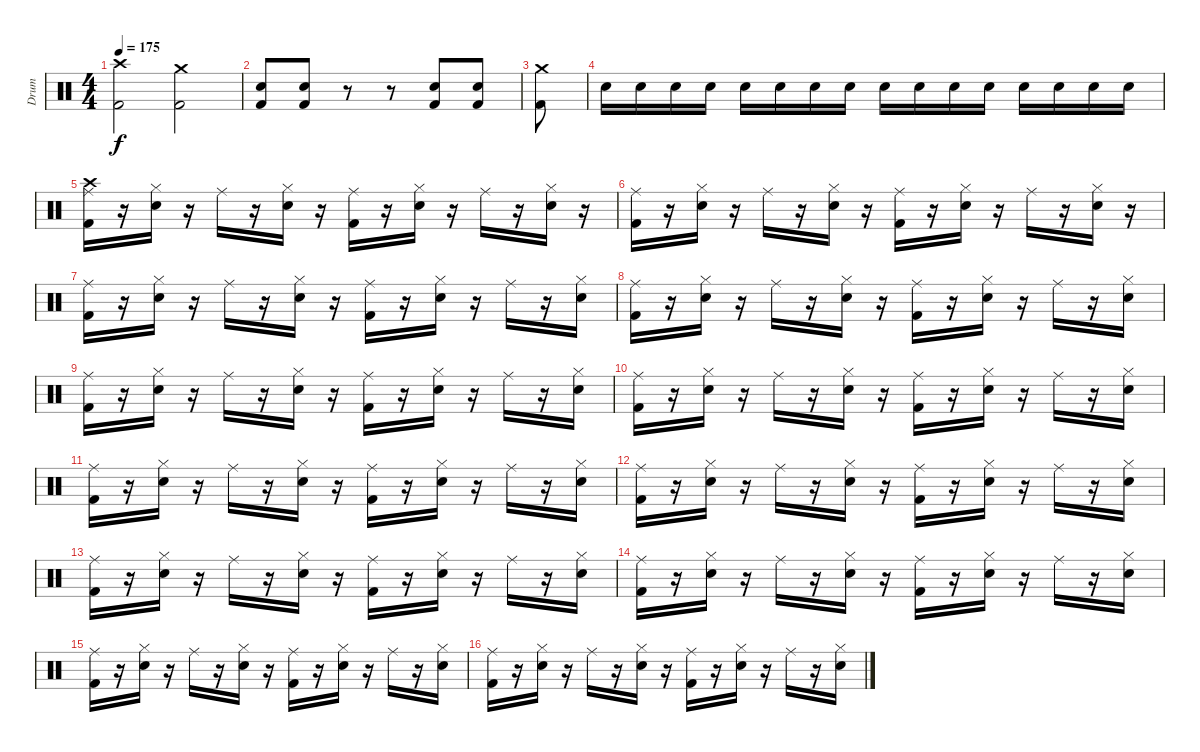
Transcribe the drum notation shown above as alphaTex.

\track ("Drum" "Drum") {instrument percussion}
\staff {score}
\articulation defaults
\ts (4 4)
\tempo 175
\clef neutral
\ks c
("Kick (hit) 2" "Crash high (hit)").2{dy f} ("Kick (hit) 2" "Crash medium (hit)").2 |
("Electric Snare (hit)" "Kick (hit) 2").8 ("Electric Snare (hit)" "Kick (hit) 2").8 r.8 r.8 ("Electric Snare (hit)" "Kick (hit) 2").8 ("Electric Snare (hit)" "Kick (hit) 2").8 |
("Kick (hit) 2" "Crash medium (hit)").8 |
"Electric Snare (hit)".16 "Electric Snare (hit)".16 "Electric Snare (hit)".16 "Electric Snare (hit)".16 "Electric Snare (hit)".16 "Electric Snare (hit)".16 "Electric Snare (hit)".16 "Electric Snare (hit)".16 "Electric Snare (hit)".16 "Electric Snare (hit)".16 "Electric Snare (hit)".16 "Electric Snare (hit)".16 "Electric Snare (hit)".16 "Electric Snare (hit)".16 "Electric Snare (hit)".16 "Electric Snare (hit)".16 |
("Ride (middle)" "Kick (hit) 2" "Crash high (hit)").16 r.16 ("Hi-Hat (closed)" "Electric Snare (hit)").16 r.16 "Ride (middle)".16 r.16 ("Hi-Hat (closed)" "Electric Snare (hit)").16 r.16 ("Ride (middle)" "Kick (hit) 2").16 r.16 ("Hi-Hat (closed)" "Electric Snare (hit)").16 r.16 "Ride (middle)".16 r.16 ("Hi-Hat (closed)" "Electric Snare (hit)").16 r.16 |
("Ride (middle)" "Kick (hit) 2").16 r.16 ("Hi-Hat (closed)" "Electric Snare (hit)").16 r.16 "Ride (middle)".16 r.16 ("Hi-Hat (closed)" "Electric Snare (hit)").16 r.16 ("Ride (middle)" "Kick (hit) 2").16 r.16 ("Hi-Hat (closed)" "Electric Snare (hit)").16 r.16 "Ride (middle)".16 r.16 ("Hi-Hat (closed)" "Electric Snare (hit)").16 r.16 |
("Ride (middle)" "Kick (hit) 2").16 r.16 ("Hi-Hat (closed)" "Electric Snare (hit)").16 r.16 "Ride (middle)".16 r.16 ("Hi-Hat (closed)" "Electric Snare (hit)").16 r.16 ("Ride (middle)" "Kick (hit) 2").16 r.16 ("Hi-Hat (closed)" "Electric Snare (hit)").16 r.16 "Ride (middle)".16 r.16 ("Hi-Hat (closed)" "Electric Snare (hit)").16 |
("Ride (middle)" "Kick (hit) 2").16 r.16 ("Hi-Hat (closed)" "Electric Snare (hit)").16 r.16 "Ride (middle)".16 r.16 ("Hi-Hat (closed)" "Electric Snare (hit)").16 r.16 ("Ride (middle)" "Kick (hit) 2").16 r.16 ("Hi-Hat (closed)" "Electric Snare (hit)").16 r.16 "Ride (middle)".16 r.16 ("Hi-Hat (closed)" "Electric Snare (hit)").16 |
("Ride (middle)" "Kick (hit) 2").16 r.16 ("Hi-Hat (closed)" "Electric Snare (hit)").16 r.16 "Ride (middle)".16 r.16 ("Hi-Hat (closed)" "Electric Snare (hit)").16 r.16 ("Ride (middle)" "Kick (hit) 2").16 r.16 ("Hi-Hat (closed)" "Electric Snare (hit)").16 r.16 "Ride (middle)".16 r.16 ("Hi-Hat (closed)" "Electric Snare (hit)").16 |
("Ride (middle)" "Kick (hit) 2").16 r.16 ("Hi-Hat (closed)" "Electric Snare (hit)").16 r.16 "Ride (middle)".16 r.16 ("Hi-Hat (closed)" "Electric Snare (hit)").16 r.16 ("Ride (middle)" "Kick (hit) 2").16 r.16 ("Hi-Hat (closed)" "Electric Snare (hit)").16 r.16 "Ride (middle)".16 r.16 ("Hi-Hat (closed)" "Electric Snare (hit)").16 |
("Ride (middle)" "Kick (hit) 2").16 r.16 ("Hi-Hat (closed)" "Electric Snare (hit)").16 r.16 "Ride (middle)".16 r.16 ("Hi-Hat (closed)" "Electric Snare (hit)").16 r.16 ("Ride (middle)" "Kick (hit) 2").16 r.16 ("Hi-Hat (closed)" "Electric Snare (hit)").16 r.16 "Ride (middle)".16 r.16 ("Hi-Hat (closed)" "Electric Snare (hit)").16 |
("Ride (middle)" "Kick (hit) 2").16 r.16 ("Hi-Hat (closed)" "Electric Snare (hit)").16 r.16 "Ride (middle)".16 r.16 ("Hi-Hat (closed)" "Electric Snare (hit)").16 r.16 ("Ride (middle)" "Kick (hit) 2").16 r.16 ("Hi-Hat (closed)" "Electric Snare (hit)").16 r.16 "Ride (middle)".16 r.16 ("Hi-Hat (closed)" "Electric Snare (hit)").16 |
("Ride (middle)" "Kick (hit) 2").16 r.16 ("Hi-Hat (closed)" "Electric Snare (hit)").16 r.16 "Ride (middle)".16 r.16 ("Hi-Hat (closed)" "Electric Snare (hit)").16 r.16 ("Ride (middle)" "Kick (hit) 2").16 r.16 ("Hi-Hat (closed)" "Electric Snare (hit)").16 r.16 "Ride (middle)".16 r.16 ("Hi-Hat (closed)" "Electric Snare (hit)").16 |
("Ride (middle)" "Kick (hit) 2").16 r.16 ("Hi-Hat (closed)" "Electric Snare (hit)").16 r.16 "Ride (middle)".16 r.16 ("Hi-Hat (closed)" "Electric Snare (hit)").16 r.16 ("Ride (middle)" "Kick (hit) 2").16 r.16 ("Hi-Hat (closed)" "Electric Snare (hit)").16 r.16 "Ride (middle)".16 r.16 ("Hi-Hat (closed)" "Electric Snare (hit)").16 |
("Ride (middle)" "Kick (hit) 2").16 r.16 ("Hi-Hat (closed)" "Electric Snare (hit)").16 r.16 "Ride (middle)".16 r.16 ("Hi-Hat (closed)" "Electric Snare (hit)").16 r.16 ("Ride (middle)" "Kick (hit) 2").16 r.16 ("Hi-Hat (closed)" "Electric Snare (hit)").16 r.16 "Ride (middle)".16 r.16 ("Hi-Hat (closed)" "Electric Snare (hit)").16 |
("Ride (middle)" "Kick (hit) 2").16 r.16 ("Hi-Hat (closed)" "Electric Snare (hit)").16 r.16 "Ride (middle)".16 r.16 ("Hi-Hat (closed)" "Electric Snare (hit)").16 r.16 ("Ride (middle)" "Kick (hit) 2").16 r.16 ("Hi-Hat (closed)" "Electric Snare (hit)").16 r.16 "Ride (middle)".16 r.16 ("Hi-Hat (closed)" "Electric Snare (hit)").16
